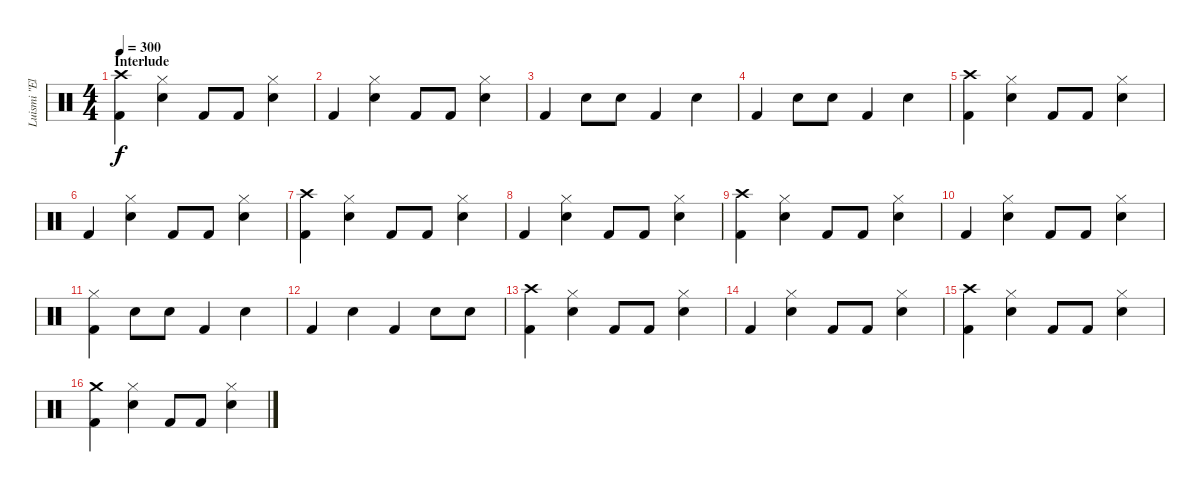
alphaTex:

\track ("Luismi \"El Papi\"" "Luismi \"El") {instrument percussion}
\staff {score}
\articulation defaults
\ts (4 4)
\section ("" "Interlude")
\tempo 300
\clef neutral
\ks c
("Crash high (hit)" "Kick (hit) 2").4{dy f} ("Hi-Hat (closed)" "Snare (hit) 2").4 "Kick (hit) 2".8 "Kick (hit) 2".8 ("Hi-Hat (closed)" "Snare (hit) 2").4 |
"Kick (hit) 2".4 ("Hi-Hat (closed)" "Snare (hit) 2").4 "Kick (hit) 2".8 "Kick (hit) 2".8 ("Hi-Hat (closed)" "Snare (hit) 2").4 |
"Kick (hit) 2".4 "Snare (hit) 2".8 "Snare (hit) 2".8 "Kick (hit) 2".4 "Snare (hit) 2".4 |
"Kick (hit) 2".4 "Snare (hit) 2".8 "Snare (hit) 2".8 "Kick (hit) 2".4 "Snare (hit) 2".4 |
("Crash high (hit)" "Kick (hit) 2").4 ("Hi-Hat (closed)" "Snare (hit) 2").4 "Kick (hit) 2".8 "Kick (hit) 2".8 ("Hi-Hat (closed)" "Snare (hit) 2").4 |
"Kick (hit) 2".4 ("Hi-Hat (closed)" "Snare (hit) 2").4 "Kick (hit) 2".8 "Kick (hit) 2".8 ("Hi-Hat (closed)" "Snare (hit) 2").4 |
("Crash high (hit)" "Kick (hit) 2").4 ("Hi-Hat (closed)" "Snare (hit) 2").4 "Kick (hit) 2".8 "Kick (hit) 2".8 ("Hi-Hat (closed)" "Snare (hit) 2").4 |
"Kick (hit) 2".4 ("Hi-Hat (closed)" "Snare (hit) 2").4 "Kick (hit) 2".8 "Kick (hit) 2".8 ("Hi-Hat (closed)" "Snare (hit) 2").4 |
("Crash high (hit)" "Kick (hit) 2").4 ("Hi-Hat (closed)" "Snare (hit) 2").4 "Kick (hit) 2".8 "Kick (hit) 2".8 ("Hi-Hat (closed)" "Snare (hit) 2").4 |
"Kick (hit) 2".4 ("Hi-Hat (closed)" "Snare (hit) 2").4 "Kick (hit) 2".8 "Kick (hit) 2".8 ("Hi-Hat (closed)" "Snare (hit) 2").4 |
("Hi-Hat (closed)" "Kick (hit) 2").4 "Snare (hit) 2".8 "Snare (hit) 2".8 "Kick (hit) 2".4 "Snare (hit) 2".4 |
"Kick (hit) 2".4 "Snare (hit) 2".4 "Kick (hit) 2".4 "Snare (hit) 2".8 "Snare (hit) 2".8 |
("Crash high (hit)" "Kick (hit) 2").4 ("Hi-Hat (closed)" "Snare (hit) 2").4 "Kick (hit) 2".8 "Kick (hit) 2".8 ("Hi-Hat (closed)" "Snare (hit) 2").4 |
"Kick (hit) 2".4 ("Hi-Hat (closed)" "Snare (hit) 2").4 "Kick (hit) 2".8 "Kick (hit) 2".8 ("Hi-Hat (closed)" "Snare (hit) 2").4 |
("Crash high (hit)" "Kick (hit) 2").4 ("Hi-Hat (closed)" "Snare (hit) 2").4 "Kick (hit) 2".8 "Kick (hit) 2".8 ("Hi-Hat (closed)" "Snare (hit) 2").4 |
("Crash medium (hit)" "Kick (hit) 2").4 ("Hi-Hat (closed)" "Snare (hit) 2").4 "Kick (hit) 2".8 "Kick (hit) 2".8 ("Hi-Hat (closed)" "Snare (hit) 2").4
